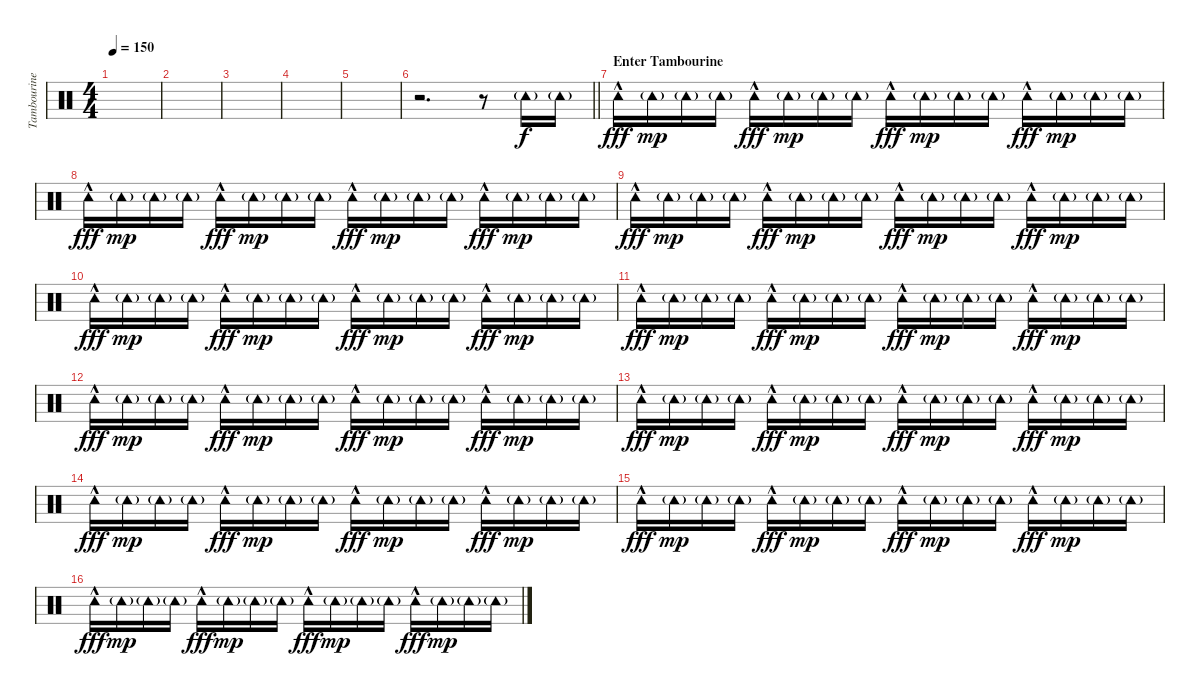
\track ("Tambourine" "Tambourine") {instrument percussion}
\staff {score}
\articulation defaults
\ts (4 4)
\tempo 150
\clef neutral
\ks c
|
|
|
|
|
\barLineRight lightlight
r.2{d} r.8 "Tambourine (hit)"{g}.16 "Tambourine (hit)"{g}.16 |
\section ("" "Enter Tambourine")
"Tambourine (hit)"{hac}.16{dy fff} "Tambourine (hit)"{g}.16{dy mp} "Tambourine (hit)"{g}.16 "Tambourine (hit)"{g}.16 "Tambourine (hit)"{hac}.16{dy fff} "Tambourine (hit)"{g}.16{dy mp} "Tambourine (hit)"{g}.16 "Tambourine (hit)"{g}.16 "Tambourine (hit)"{hac}.16{dy fff} "Tambourine (hit)"{g}.16{dy mp} "Tambourine (hit)"{g}.16 "Tambourine (hit)"{g}.16 "Tambourine (hit)"{hac}.16{dy fff} "Tambourine (hit)"{g}.16{dy mp} "Tambourine (hit)"{g}.16 "Tambourine (hit)"{g}.16 |
"Tambourine (hit)"{hac}.16{dy fff} "Tambourine (hit)"{g}.16{dy mp} "Tambourine (hit)"{g}.16 "Tambourine (hit)"{g}.16 "Tambourine (hit)"{hac}.16{dy fff} "Tambourine (hit)"{g}.16{dy mp} "Tambourine (hit)"{g}.16 "Tambourine (hit)"{g}.16 "Tambourine (hit)"{hac}.16{dy fff} "Tambourine (hit)"{g}.16{dy mp} "Tambourine (hit)"{g}.16 "Tambourine (hit)"{g}.16 "Tambourine (hit)"{hac}.16{dy fff} "Tambourine (hit)"{g}.16{dy mp} "Tambourine (hit)"{g}.16 "Tambourine (hit)"{g}.16 |
"Tambourine (hit)"{hac}.16{dy fff} "Tambourine (hit)"{g}.16{dy mp} "Tambourine (hit)"{g}.16 "Tambourine (hit)"{g}.16 "Tambourine (hit)"{hac}.16{dy fff} "Tambourine (hit)"{g}.16{dy mp} "Tambourine (hit)"{g}.16 "Tambourine (hit)"{g}.16 "Tambourine (hit)"{hac}.16{dy fff} "Tambourine (hit)"{g}.16{dy mp} "Tambourine (hit)"{g}.16 "Tambourine (hit)"{g}.16 "Tambourine (hit)"{hac}.16{dy fff} "Tambourine (hit)"{g}.16{dy mp} "Tambourine (hit)"{g}.16 "Tambourine (hit)"{g}.16 |
"Tambourine (hit)"{hac}.16{dy fff} "Tambourine (hit)"{g}.16{dy mp} "Tambourine (hit)"{g}.16 "Tambourine (hit)"{g}.16 "Tambourine (hit)"{hac}.16{dy fff} "Tambourine (hit)"{g}.16{dy mp} "Tambourine (hit)"{g}.16 "Tambourine (hit)"{g}.16 "Tambourine (hit)"{hac}.16{dy fff} "Tambourine (hit)"{g}.16{dy mp} "Tambourine (hit)"{g}.16 "Tambourine (hit)"{g}.16 "Tambourine (hit)"{hac}.16{dy fff} "Tambourine (hit)"{g}.16{dy mp} "Tambourine (hit)"{g}.16 "Tambourine (hit)"{g}.16 |
"Tambourine (hit)"{hac}.16{dy fff} "Tambourine (hit)"{g}.16{dy mp} "Tambourine (hit)"{g}.16 "Tambourine (hit)"{g}.16 "Tambourine (hit)"{hac}.16{dy fff} "Tambourine (hit)"{g}.16{dy mp} "Tambourine (hit)"{g}.16 "Tambourine (hit)"{g}.16 "Tambourine (hit)"{hac}.16{dy fff} "Tambourine (hit)"{g}.16{dy mp} "Tambourine (hit)"{g}.16 "Tambourine (hit)"{g}.16 "Tambourine (hit)"{hac}.16{dy fff} "Tambourine (hit)"{g}.16{dy mp} "Tambourine (hit)"{g}.16 "Tambourine (hit)"{g}.16 |
"Tambourine (hit)"{hac}.16{dy fff} "Tambourine (hit)"{g}.16{dy mp} "Tambourine (hit)"{g}.16 "Tambourine (hit)"{g}.16 "Tambourine (hit)"{hac}.16{dy fff} "Tambourine (hit)"{g}.16{dy mp} "Tambourine (hit)"{g}.16 "Tambourine (hit)"{g}.16 "Tambourine (hit)"{hac}.16{dy fff} "Tambourine (hit)"{g}.16{dy mp} "Tambourine (hit)"{g}.16 "Tambourine (hit)"{g}.16 "Tambourine (hit)"{hac}.16{dy fff} "Tambourine (hit)"{g}.16{dy mp} "Tambourine (hit)"{g}.16 "Tambourine (hit)"{g}.16 |
"Tambourine (hit)"{hac}.16{dy fff} "Tambourine (hit)"{g}.16{dy mp} "Tambourine (hit)"{g}.16 "Tambourine (hit)"{g}.16 "Tambourine (hit)"{hac}.16{dy fff} "Tambourine (hit)"{g}.16{dy mp} "Tambourine (hit)"{g}.16 "Tambourine (hit)"{g}.16 "Tambourine (hit)"{hac}.16{dy fff} "Tambourine (hit)"{g}.16{dy mp} "Tambourine (hit)"{g}.16 "Tambourine (hit)"{g}.16 "Tambourine (hit)"{hac}.16{dy fff} "Tambourine (hit)"{g}.16{dy mp} "Tambourine (hit)"{g}.16 "Tambourine (hit)"{g}.16 |
"Tambourine (hit)"{hac}.16{dy fff} "Tambourine (hit)"{g}.16{dy mp} "Tambourine (hit)"{g}.16 "Tambourine (hit)"{g}.16 "Tambourine (hit)"{hac}.16{dy fff} "Tambourine (hit)"{g}.16{dy mp} "Tambourine (hit)"{g}.16 "Tambourine (hit)"{g}.16 "Tambourine (hit)"{hac}.16{dy fff} "Tambourine (hit)"{g}.16{dy mp} "Tambourine (hit)"{g}.16 "Tambourine (hit)"{g}.16 "Tambourine (hit)"{hac}.16{dy fff} "Tambourine (hit)"{g}.16{dy mp} "Tambourine (hit)"{g}.16 "Tambourine (hit)"{g}.16 |
"Tambourine (hit)"{hac}.16{dy fff} "Tambourine (hit)"{g}.16{dy mp} "Tambourine (hit)"{g}.16 "Tambourine (hit)"{g}.16 "Tambourine (hit)"{hac}.16{dy fff} "Tambourine (hit)"{g}.16{dy mp} "Tambourine (hit)"{g}.16 "Tambourine (hit)"{g}.16 "Tambourine (hit)"{hac}.16{dy fff} "Tambourine (hit)"{g}.16{dy mp} "Tambourine (hit)"{g}.16 "Tambourine (hit)"{g}.16 "Tambourine (hit)"{hac}.16{dy fff} "Tambourine (hit)"{g}.16{dy mp} "Tambourine (hit)"{g}.16 "Tambourine (hit)"{g}.16 |
"Tambourine (hit)"{hac}.16{dy fff} "Tambourine (hit)"{g}.16{dy mp} "Tambourine (hit)"{g}.16 "Tambourine (hit)"{g}.16 "Tambourine (hit)"{hac}.16{dy fff} "Tambourine (hit)"{g}.16{dy mp} "Tambourine (hit)"{g}.16 "Tambourine (hit)"{g}.16 "Tambourine (hit)"{hac}.16{dy fff} "Tambourine (hit)"{g}.16{dy mp} "Tambourine (hit)"{g}.16 "Tambourine (hit)"{g}.16 "Tambourine (hit)"{hac}.16{dy fff} "Tambourine (hit)"{g}.16{dy mp} "Tambourine (hit)"{g}.16 "Tambourine (hit)"{g}.16
